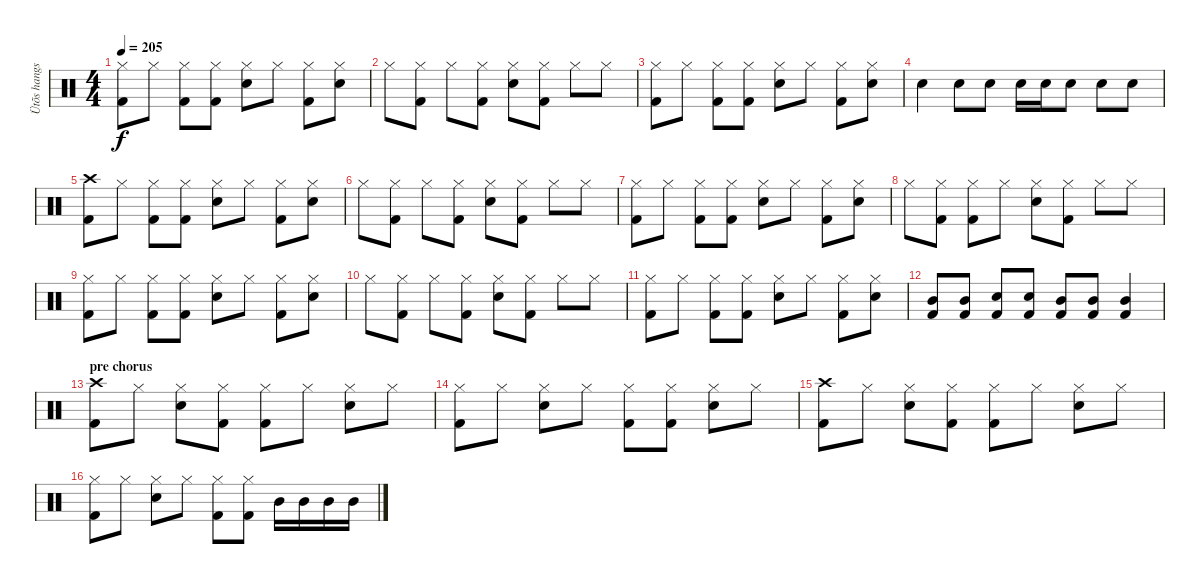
\track ("Ütõs hangszer" "Ütõs hangs") {instrument percussion}
\staff {score}
\articulation defaults
\ts (4 4)
\tempo 205
\clef neutral
\ks c
("Hi-Hat (closed)" "Kick (hit) 2").8{dy f} "Hi-Hat (closed)".8 ("Hi-Hat (closed)" "Kick (hit) 2").8 ("Hi-Hat (closed)" "Kick (hit) 2").8 ("Hi-Hat (closed)" "Snare (hit) 2").8 "Hi-Hat (closed)".8 ("Hi-Hat (closed)" "Kick (hit) 2").8 ("Hi-Hat (closed)" "Snare (hit) 2").8 |
"Hi-Hat (closed)".8 ("Hi-Hat (closed)" "Kick (hit) 2").8 "Hi-Hat (closed)".8 ("Hi-Hat (closed)" "Kick (hit) 2").8 ("Hi-Hat (closed)" "Snare (hit) 2").8 ("Hi-Hat (closed)" "Kick (hit) 2").8 "Hi-Hat (closed)".8 "Hi-Hat (closed)".8 |
("Hi-Hat (closed)" "Kick (hit) 2").8 "Hi-Hat (closed)".8 ("Hi-Hat (closed)" "Kick (hit) 2").8 ("Hi-Hat (closed)" "Kick (hit) 2").8 ("Hi-Hat (closed)" "Snare (hit) 2").8 "Hi-Hat (closed)".8 ("Hi-Hat (closed)" "Kick (hit) 2").8 ("Hi-Hat (closed)" "Snare (hit) 2").8 |
"Snare (hit) 2".4 "Snare (hit) 2".8 "Snare (hit) 2".8 "Snare (hit) 2".16 "Snare (hit) 2".16 "Snare (hit) 2".8 "Snare (hit) 2".8 "Snare (hit) 2".8 |
("Crash high (hit)" "Kick (hit) 2").8 "Hi-Hat (closed)".8 ("Hi-Hat (closed)" "Kick (hit) 2").8 ("Hi-Hat (closed)" "Kick (hit) 2").8 ("Hi-Hat (closed)" "Snare (hit) 2").8 "Hi-Hat (closed)".8 ("Hi-Hat (closed)" "Kick (hit) 2").8 ("Hi-Hat (closed)" "Snare (hit) 2").8 |
"Hi-Hat (closed)".8 ("Hi-Hat (closed)" "Kick (hit) 2").8 "Hi-Hat (closed)".8 ("Hi-Hat (closed)" "Kick (hit) 2").8 ("Hi-Hat (closed)" "Snare (hit) 2").8 ("Hi-Hat (closed)" "Kick (hit) 2").8 "Hi-Hat (closed)".8 "Hi-Hat (closed)".8 |
("Hi-Hat (closed)" "Kick (hit) 2").8 "Hi-Hat (closed)".8 ("Hi-Hat (closed)" "Kick (hit) 2").8 ("Hi-Hat (closed)" "Kick (hit) 2").8 ("Hi-Hat (closed)" "Snare (hit) 2").8 "Hi-Hat (closed)".8 ("Hi-Hat (closed)" "Kick (hit) 2").8 ("Hi-Hat (closed)" "Snare (hit) 2").8 |
"Hi-Hat (closed)".8 ("Hi-Hat (closed)" "Kick (hit) 2").8 ("Hi-Hat (closed)" "Kick (hit) 2").8 "Hi-Hat (closed)".8 ("Hi-Hat (closed)" "Snare (hit) 2").8 ("Hi-Hat (closed)" "Kick (hit) 2").8 "Hi-Hat (closed)".8 "Hi-Hat (closed)".8 |
("Hi-Hat (closed)" "Kick (hit) 2").8 "Hi-Hat (closed)".8 ("Hi-Hat (closed)" "Kick (hit) 2").8 ("Hi-Hat (closed)" "Kick (hit) 2").8 ("Hi-Hat (closed)" "Snare (hit) 2").8 "Hi-Hat (closed)".8 ("Hi-Hat (closed)" "Kick (hit) 2").8 ("Hi-Hat (closed)" "Snare (hit) 2").8 |
"Hi-Hat (closed)".8 ("Hi-Hat (closed)" "Kick (hit) 2").8 "Hi-Hat (closed)".8 ("Hi-Hat (closed)" "Kick (hit) 2").8 ("Hi-Hat (closed)" "Snare (hit) 2").8 ("Hi-Hat (closed)" "Kick (hit) 2").8 "Hi-Hat (closed)".8 "Hi-Hat (closed)".8 |
("Hi-Hat (closed)" "Kick (hit) 2").8 "Hi-Hat (closed)".8 ("Hi-Hat (closed)" "Kick (hit) 2").8 ("Hi-Hat (closed)" "Kick (hit) 2").8 ("Hi-Hat (closed)" "Snare (hit) 2").8 "Hi-Hat (closed)".8 ("Hi-Hat (closed)" "Kick (hit) 2").8 ("Hi-Hat (closed)" "Snare (hit) 2").8 |
("Mid Tom (hit)" "Kick (hit) 2").8 ("Mid Tom (hit)" "Kick (hit) 2").8 ("Kick (hit) 2" "Snare (hit) 2").8 ("Kick (hit) 2" "Snare (hit) 2").8 ("Mid Tom (hit)" "Kick (hit) 2").8 ("Mid Tom (hit)" "Kick (hit) 2").8 ("Mid Tom (hit)" "Kick (hit) 2").4 |
\section ("" "pre chorus")
("Crash high (hit)" "Kick (hit) 2").8 "Hi-Hat (closed)".8 ("Hi-Hat (closed)" "Snare (hit) 2").8 ("Hi-Hat (closed)" "Kick (hit) 2").8 ("Hi-Hat (closed)" "Kick (hit) 2").8 "Hi-Hat (closed)".8 ("Hi-Hat (closed)" "Snare (hit) 2").8 "Hi-Hat (closed)".8 |
("Hi-Hat (closed)" "Kick (hit) 2").8 "Hi-Hat (closed)".8 ("Hi-Hat (closed)" "Snare (hit) 2").8 "Hi-Hat (closed)".8 ("Hi-Hat (closed)" "Kick (hit) 2").8 ("Hi-Hat (closed)" "Kick (hit) 2").8 ("Hi-Hat (closed)" "Snare (hit) 2").8 "Hi-Hat (closed)".8 |
("Crash high (hit)" "Kick (hit) 2").8 "Hi-Hat (closed)".8 ("Hi-Hat (closed)" "Snare (hit) 2").8 ("Hi-Hat (closed)" "Kick (hit) 2").8 ("Hi-Hat (closed)" "Kick (hit) 2").8 "Hi-Hat (closed)".8 ("Hi-Hat (closed)" "Snare (hit) 2").8 "Hi-Hat (closed)".8 |
("Hi-Hat (closed)" "Kick (hit) 2").8 "Hi-Hat (closed)".8 ("Hi-Hat (closed)" "Snare (hit) 2").8 "Hi-Hat (closed)".8 ("Hi-Hat (closed)" "Kick (hit) 2").8 ("Hi-Hat (closed)" "Kick (hit) 2").8 "Mid Tom (hit)".16 "Mid Tom (hit)".16 "Mid Tom (hit)".16 "Mid Tom (hit)".16
